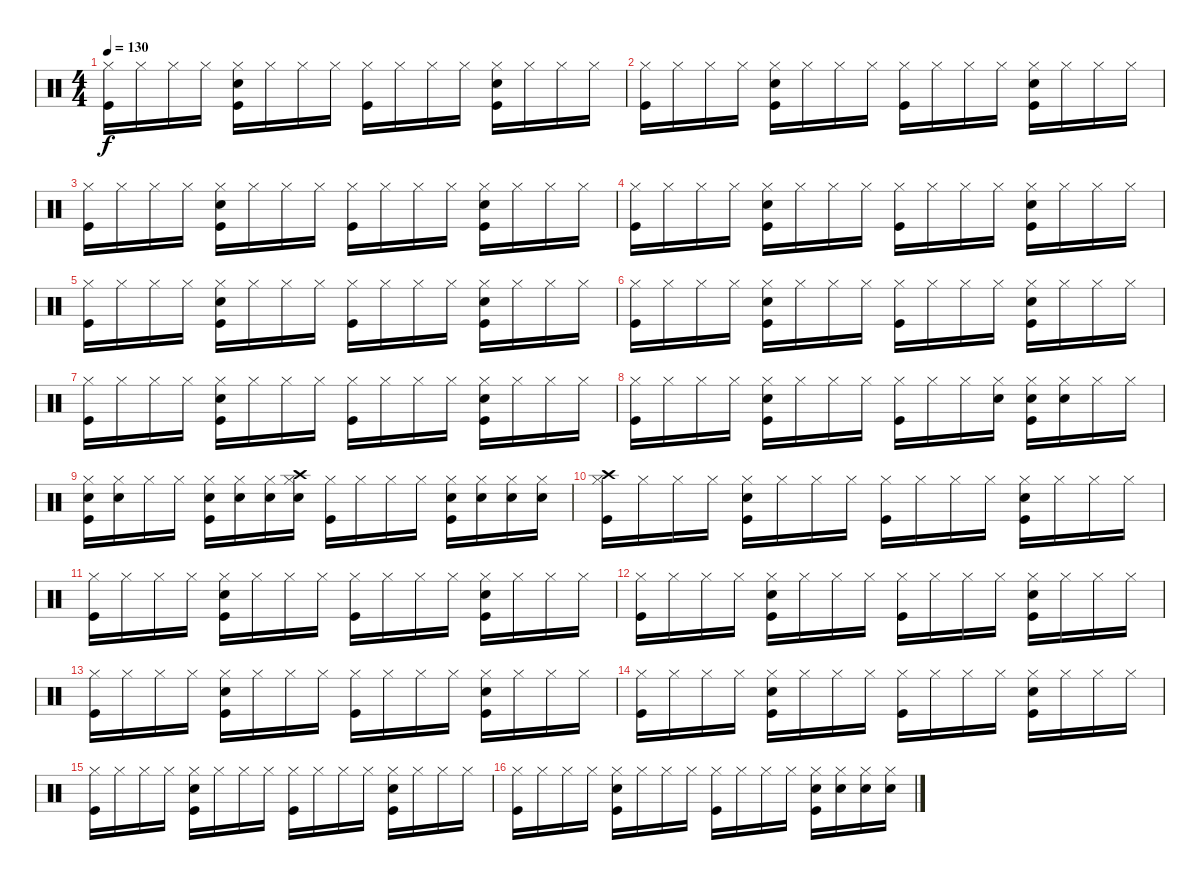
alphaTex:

\track "" {instrument percussion}
\staff {score}
\articulation defaults
\ts (4 4)
\tempo 130
\clef neutral
\ks c
("Hi-Hat (closed)" "Kick (hit)").16{dy f} "Hi-Hat (closed)".16 "Hi-Hat (closed)".16 "Hi-Hat (closed)".16 ("Snare (hit) 2" "Hi-Hat (closed)" "Kick (hit)").16 "Hi-Hat (closed)".16 "Hi-Hat (closed)".16 "Hi-Hat (closed)".16 ("Hi-Hat (closed)" "Kick (hit)").16 "Hi-Hat (closed)".16 "Hi-Hat (closed)".16 "Hi-Hat (closed)".16 ("Snare (hit) 2" "Hi-Hat (closed)" "Kick (hit)").16 "Hi-Hat (closed)".16 "Hi-Hat (closed)".16 "Hi-Hat (closed)".16 |
("Hi-Hat (closed)" "Kick (hit)").16 "Hi-Hat (closed)".16 "Hi-Hat (closed)".16 "Hi-Hat (closed)".16 ("Snare (hit) 2" "Hi-Hat (closed)" "Kick (hit)").16 "Hi-Hat (closed)".16 "Hi-Hat (closed)".16 "Hi-Hat (closed)".16 ("Hi-Hat (closed)" "Kick (hit)").16 "Hi-Hat (closed)".16 "Hi-Hat (closed)".16 "Hi-Hat (closed)".16 ("Snare (hit) 2" "Hi-Hat (closed)" "Kick (hit)").16 "Hi-Hat (closed)".16 "Hi-Hat (closed)".16 "Hi-Hat (closed)".16 |
("Hi-Hat (closed)" "Kick (hit)").16 "Hi-Hat (closed)".16 "Hi-Hat (closed)".16 "Hi-Hat (closed)".16 ("Snare (hit) 2" "Hi-Hat (closed)" "Kick (hit)").16 "Hi-Hat (closed)".16 "Hi-Hat (closed)".16 "Hi-Hat (closed)".16 ("Hi-Hat (closed)" "Kick (hit)").16 "Hi-Hat (closed)".16 "Hi-Hat (closed)".16 "Hi-Hat (closed)".16 ("Snare (hit) 2" "Hi-Hat (closed)" "Kick (hit)").16 "Hi-Hat (closed)".16 "Hi-Hat (closed)".16 "Hi-Hat (closed)".16 |
("Hi-Hat (closed)" "Kick (hit)").16 "Hi-Hat (closed)".16 "Hi-Hat (closed)".16 "Hi-Hat (closed)".16 ("Snare (hit) 2" "Hi-Hat (closed)" "Kick (hit)").16 "Hi-Hat (closed)".16 "Hi-Hat (closed)".16 "Hi-Hat (closed)".16 ("Hi-Hat (closed)" "Kick (hit)").16 "Hi-Hat (closed)".16 "Hi-Hat (closed)".16 "Hi-Hat (closed)".16 ("Snare (hit) 2" "Hi-Hat (closed)" "Kick (hit)").16 "Hi-Hat (closed)".16 "Hi-Hat (closed)".16 "Hi-Hat (closed)".16 |
("Hi-Hat (closed)" "Kick (hit)").16 "Hi-Hat (closed)".16 "Hi-Hat (closed)".16 "Hi-Hat (closed)".16 ("Snare (hit) 2" "Hi-Hat (closed)" "Kick (hit)").16 "Hi-Hat (closed)".16 "Hi-Hat (closed)".16 "Hi-Hat (closed)".16 ("Hi-Hat (closed)" "Kick (hit)").16 "Hi-Hat (closed)".16 "Hi-Hat (closed)".16 "Hi-Hat (closed)".16 ("Snare (hit) 2" "Hi-Hat (closed)" "Kick (hit)").16 "Hi-Hat (closed)".16 "Hi-Hat (closed)".16 "Hi-Hat (closed)".16 |
("Hi-Hat (closed)" "Kick (hit)").16 "Hi-Hat (closed)".16 "Hi-Hat (closed)".16 "Hi-Hat (closed)".16 ("Snare (hit) 2" "Hi-Hat (closed)" "Kick (hit)").16 "Hi-Hat (closed)".16 "Hi-Hat (closed)".16 "Hi-Hat (closed)".16 ("Hi-Hat (closed)" "Kick (hit)").16 "Hi-Hat (closed)".16 "Hi-Hat (closed)".16 "Hi-Hat (closed)".16 ("Snare (hit) 2" "Hi-Hat (closed)" "Kick (hit)").16 "Hi-Hat (closed)".16 "Hi-Hat (closed)".16 "Hi-Hat (closed)".16 |
("Hi-Hat (closed)" "Kick (hit)").16 "Hi-Hat (closed)".16 "Hi-Hat (closed)".16 "Hi-Hat (closed)".16 ("Snare (hit) 2" "Hi-Hat (closed)" "Kick (hit)").16 "Hi-Hat (closed)".16 "Hi-Hat (closed)".16 "Hi-Hat (closed)".16 ("Hi-Hat (closed)" "Kick (hit)").16 "Hi-Hat (closed)".16 "Hi-Hat (closed)".16 "Hi-Hat (closed)".16 ("Snare (hit) 2" "Hi-Hat (closed)" "Kick (hit)").16 "Hi-Hat (closed)".16 "Hi-Hat (closed)".16 "Hi-Hat (closed)".16 |
("Hi-Hat (closed)" "Kick (hit)").16 "Hi-Hat (closed)".16 "Hi-Hat (closed)".16 "Hi-Hat (closed)".16 ("Snare (hit) 2" "Hi-Hat (closed)" "Kick (hit)").16 "Hi-Hat (closed)".16 "Hi-Hat (closed)".16 "Hi-Hat (closed)".16 ("Hi-Hat (closed)" "Kick (hit)").16 "Hi-Hat (closed)".16 "Hi-Hat (closed)".16 ("Snare (hit) 2" "Hi-Hat (closed)").16 ("Snare (hit) 2" "Hi-Hat (closed)" "Kick (hit)").16 ("Snare (hit) 2" "Hi-Hat (closed)").16 "Hi-Hat (closed)".16 "Hi-Hat (closed)".16 |
("Snare (hit) 2" "Hi-Hat (closed)" "Kick (hit)").16 ("Snare (hit) 2" "Hi-Hat (closed)").16 "Hi-Hat (closed)".16 "Hi-Hat (closed)".16 ("Snare (hit) 2" "Hi-Hat (closed)" "Kick (hit)").16 ("Snare (hit) 2" "Hi-Hat (closed)").16 ("Snare (hit) 2" "Hi-Hat (closed)").16 ("Crash high (hit)" "Snare (hit) 2" "Hi-Hat (closed)").16 ("Hi-Hat (closed)" "Kick (hit)").16 "Hi-Hat (closed)".16 "Hi-Hat (closed)".16 "Hi-Hat (closed)".16 ("Snare (hit) 2" "Hi-Hat (closed)" "Kick (hit)").16 ("Snare (hit) 2" "Hi-Hat (closed)").16 ("Snare (hit) 2" "Hi-Hat (closed)").16 ("Snare (hit) 2" "Hi-Hat (closed)").16 |
("Crash high (hit)" "Hi-Hat (closed)" "Kick (hit)").16 "Hi-Hat (closed)".16 "Hi-Hat (closed)".16 "Hi-Hat (closed)".16 ("Snare (hit) 2" "Hi-Hat (closed)" "Kick (hit)").16 "Hi-Hat (closed)".16 "Hi-Hat (closed)".16 "Hi-Hat (closed)".16 ("Hi-Hat (closed)" "Kick (hit)").16 "Hi-Hat (closed)".16 "Hi-Hat (closed)".16 "Hi-Hat (closed)".16 ("Snare (hit) 2" "Hi-Hat (closed)" "Kick (hit)").16 "Hi-Hat (closed)".16 "Hi-Hat (closed)".16 "Hi-Hat (closed)".16 |
("Hi-Hat (closed)" "Kick (hit)").16 "Hi-Hat (closed)".16 "Hi-Hat (closed)".16 "Hi-Hat (closed)".16 ("Snare (hit) 2" "Hi-Hat (closed)" "Kick (hit)").16 "Hi-Hat (closed)".16 "Hi-Hat (closed)".16 "Hi-Hat (closed)".16 ("Hi-Hat (closed)" "Kick (hit)").16 "Hi-Hat (closed)".16 "Hi-Hat (closed)".16 "Hi-Hat (closed)".16 ("Snare (hit) 2" "Hi-Hat (closed)" "Kick (hit)").16 "Hi-Hat (closed)".16 "Hi-Hat (closed)".16 "Hi-Hat (closed)".16 |
("Hi-Hat (closed)" "Kick (hit)").16 "Hi-Hat (closed)".16 "Hi-Hat (closed)".16 "Hi-Hat (closed)".16 ("Snare (hit) 2" "Hi-Hat (closed)" "Kick (hit)").16 "Hi-Hat (closed)".16 "Hi-Hat (closed)".16 "Hi-Hat (closed)".16 ("Hi-Hat (closed)" "Kick (hit)").16 "Hi-Hat (closed)".16 "Hi-Hat (closed)".16 "Hi-Hat (closed)".16 ("Snare (hit) 2" "Hi-Hat (closed)" "Kick (hit)").16 "Hi-Hat (closed)".16 "Hi-Hat (closed)".16 "Hi-Hat (closed)".16 |
("Hi-Hat (closed)" "Kick (hit)").16 "Hi-Hat (closed)".16 "Hi-Hat (closed)".16 "Hi-Hat (closed)".16 ("Snare (hit) 2" "Hi-Hat (closed)" "Kick (hit)").16 "Hi-Hat (closed)".16 "Hi-Hat (closed)".16 "Hi-Hat (closed)".16 ("Hi-Hat (closed)" "Kick (hit)").16 "Hi-Hat (closed)".16 "Hi-Hat (closed)".16 "Hi-Hat (closed)".16 ("Snare (hit) 2" "Hi-Hat (closed)" "Kick (hit)").16 "Hi-Hat (closed)".16 "Hi-Hat (closed)".16 "Hi-Hat (closed)".16 |
("Hi-Hat (closed)" "Kick (hit)").16 "Hi-Hat (closed)".16 "Hi-Hat (closed)".16 "Hi-Hat (closed)".16 ("Snare (hit) 2" "Hi-Hat (closed)" "Kick (hit)").16 "Hi-Hat (closed)".16 "Hi-Hat (closed)".16 "Hi-Hat (closed)".16 ("Hi-Hat (closed)" "Kick (hit)").16 "Hi-Hat (closed)".16 "Hi-Hat (closed)".16 "Hi-Hat (closed)".16 ("Snare (hit) 2" "Hi-Hat (closed)" "Kick (hit)").16 "Hi-Hat (closed)".16 "Hi-Hat (closed)".16 "Hi-Hat (closed)".16 |
("Hi-Hat (closed)" "Kick (hit)").16 "Hi-Hat (closed)".16 "Hi-Hat (closed)".16 "Hi-Hat (closed)".16 ("Snare (hit) 2" "Hi-Hat (closed)" "Kick (hit)").16 "Hi-Hat (closed)".16 "Hi-Hat (closed)".16 "Hi-Hat (closed)".16 ("Hi-Hat (closed)" "Kick (hit)").16 "Hi-Hat (closed)".16 "Hi-Hat (closed)".16 "Hi-Hat (closed)".16 ("Snare (hit) 2" "Hi-Hat (closed)" "Kick (hit)").16 "Hi-Hat (closed)".16 "Hi-Hat (closed)".16 "Hi-Hat (closed)".16 |
("Hi-Hat (closed)" "Kick (hit)").16 "Hi-Hat (closed)".16 "Hi-Hat (closed)".16 "Hi-Hat (closed)".16 ("Snare (hit) 2" "Hi-Hat (closed)" "Kick (hit)").16 "Hi-Hat (closed)".16 "Hi-Hat (closed)".16 "Hi-Hat (closed)".16 ("Hi-Hat (closed)" "Kick (hit)").16 "Hi-Hat (closed)".16 "Hi-Hat (closed)".16 "Hi-Hat (closed)".16 ("Snare (hit) 2" "Hi-Hat (closed)" "Kick (hit)").16 ("Snare (hit) 2" "Hi-Hat (closed)").16 ("Snare (hit) 2" "Hi-Hat (closed)").16 ("Snare (hit) 2" "Hi-Hat (closed)").16
